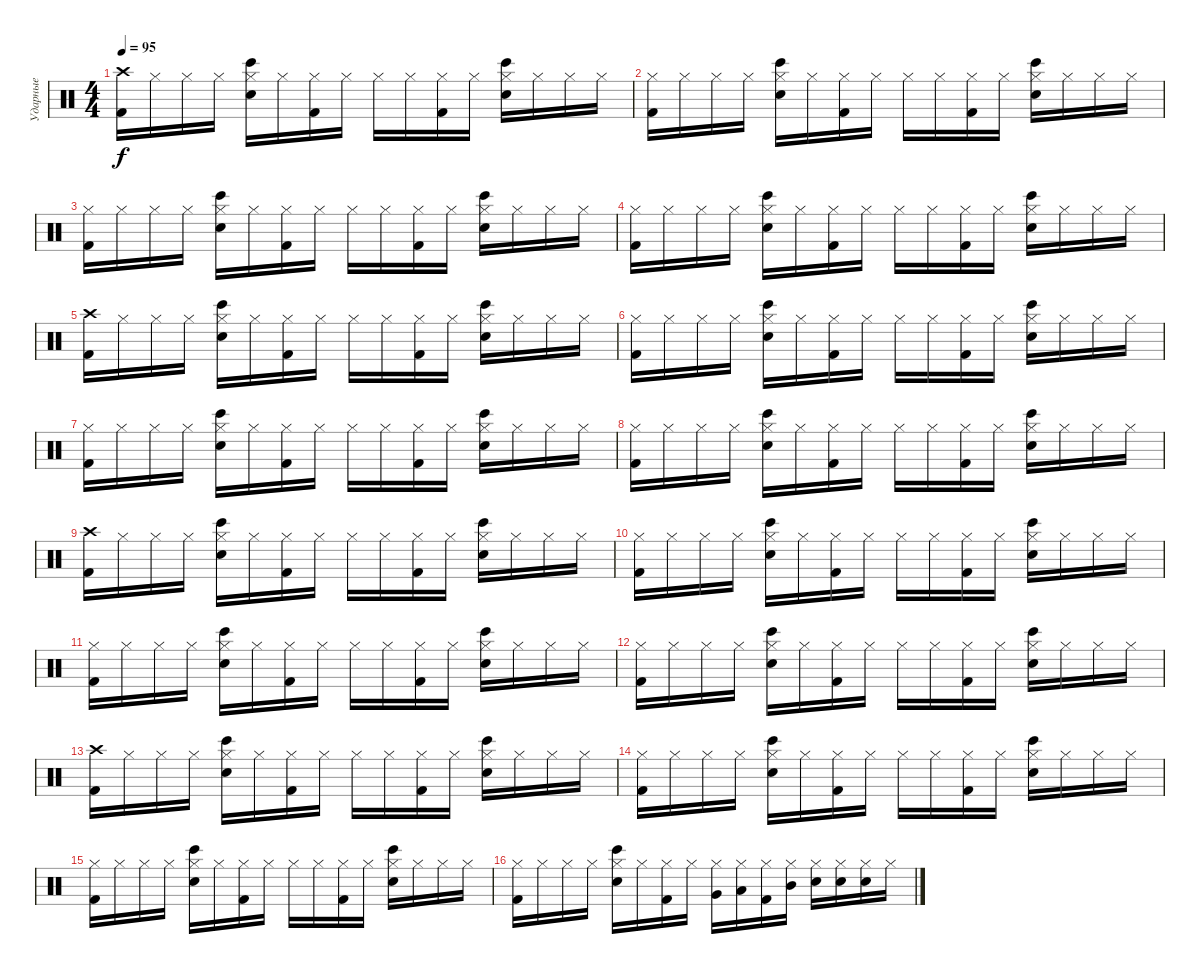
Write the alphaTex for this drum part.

\track ("Ударные" "Ударные") {instrument percussion}
\staff {score}
\articulation defaults
\ts (4 4)
\tempo 95
\clef neutral
\ks c
("Crash high (hit)" "Kick (hit) 2").16{dy f} "Hi-Hat (closed)".16 "Hi-Hat (closed)".16 "Hi-Hat (closed)".16 ("Hi-Hat (closed)" "Electric Snare (hit)" "Bongo High (hit)").16 "Hi-Hat (closed)".16 ("Hi-Hat (closed)" "Kick (hit) 2").16 "Hi-Hat (closed)".16 "Hi-Hat (closed)".16 "Hi-Hat (closed)".16 ("Hi-Hat (closed)" "Kick (hit) 2").16 "Hi-Hat (closed)".16 ("Hi-Hat (closed)" "Electric Snare (hit)" "Bongo High (hit)").16 "Hi-Hat (closed)".16 "Hi-Hat (closed)".16 "Hi-Hat (closed)".16 |
("Hi-Hat (closed)" "Kick (hit) 2").16 "Hi-Hat (closed)".16 "Hi-Hat (closed)".16 "Hi-Hat (closed)".16 ("Hi-Hat (closed)" "Electric Snare (hit)" "Bongo High (hit)").16 "Hi-Hat (closed)".16 ("Hi-Hat (closed)" "Kick (hit) 2").16 "Hi-Hat (closed)".16 "Hi-Hat (closed)".16 "Hi-Hat (closed)".16 ("Hi-Hat (closed)" "Kick (hit) 2").16 "Hi-Hat (closed)".16 ("Hi-Hat (closed)" "Electric Snare (hit)" "Bongo High (hit)").16 "Hi-Hat (closed)".16 "Hi-Hat (closed)".16 "Hi-Hat (closed)".16 |
("Hi-Hat (closed)" "Kick (hit) 2").16 "Hi-Hat (closed)".16 "Hi-Hat (closed)".16 "Hi-Hat (closed)".16 ("Hi-Hat (closed)" "Electric Snare (hit)" "Bongo High (hit)").16 "Hi-Hat (closed)".16 ("Hi-Hat (closed)" "Kick (hit) 2").16 "Hi-Hat (closed)".16 "Hi-Hat (closed)".16 "Hi-Hat (closed)".16 ("Hi-Hat (closed)" "Kick (hit) 2").16 "Hi-Hat (closed)".16 ("Hi-Hat (closed)" "Electric Snare (hit)" "Bongo High (hit)").16 "Hi-Hat (closed)".16 "Hi-Hat (closed)".16 "Hi-Hat (closed)".16 |
("Hi-Hat (closed)" "Kick (hit) 2").16 "Hi-Hat (closed)".16 "Hi-Hat (closed)".16 "Hi-Hat (closed)".16 ("Hi-Hat (closed)" "Electric Snare (hit)" "Bongo High (hit)").16 "Hi-Hat (closed)".16 ("Hi-Hat (closed)" "Kick (hit) 2").16 "Hi-Hat (closed)".16 "Hi-Hat (closed)".16 "Hi-Hat (closed)".16 ("Hi-Hat (closed)" "Kick (hit) 2").16 "Hi-Hat (closed)".16 ("Hi-Hat (closed)" "Electric Snare (hit)" "Bongo High (hit)").16 "Hi-Hat (closed)".16 "Hi-Hat (closed)".16 "Hi-Hat (closed)".16 |
("Crash high (hit)" "Kick (hit) 2").16 "Hi-Hat (closed)".16 "Hi-Hat (closed)".16 "Hi-Hat (closed)".16 ("Hi-Hat (closed)" "Electric Snare (hit)" "Bongo High (hit)").16 "Hi-Hat (closed)".16 ("Hi-Hat (closed)" "Kick (hit) 2").16 "Hi-Hat (closed)".16 "Hi-Hat (closed)".16 "Hi-Hat (closed)".16 ("Hi-Hat (closed)" "Kick (hit) 2").16 "Hi-Hat (closed)".16 ("Hi-Hat (closed)" "Electric Snare (hit)" "Bongo High (hit)").16 "Hi-Hat (closed)".16 "Hi-Hat (closed)".16 "Hi-Hat (closed)".16 |
("Hi-Hat (closed)" "Kick (hit) 2").16 "Hi-Hat (closed)".16 "Hi-Hat (closed)".16 "Hi-Hat (closed)".16 ("Hi-Hat (closed)" "Electric Snare (hit)" "Bongo High (hit)").16 "Hi-Hat (closed)".16 ("Hi-Hat (closed)" "Kick (hit) 2").16 "Hi-Hat (closed)".16 "Hi-Hat (closed)".16 "Hi-Hat (closed)".16 ("Hi-Hat (closed)" "Kick (hit) 2").16 "Hi-Hat (closed)".16 ("Hi-Hat (closed)" "Electric Snare (hit)" "Bongo High (hit)").16 "Hi-Hat (closed)".16 "Hi-Hat (closed)".16 "Hi-Hat (closed)".16 |
("Hi-Hat (closed)" "Kick (hit) 2").16 "Hi-Hat (closed)".16 "Hi-Hat (closed)".16 "Hi-Hat (closed)".16 ("Hi-Hat (closed)" "Electric Snare (hit)" "Bongo High (hit)").16 "Hi-Hat (closed)".16 ("Hi-Hat (closed)" "Kick (hit) 2").16 "Hi-Hat (closed)".16 "Hi-Hat (closed)".16 "Hi-Hat (closed)".16 ("Hi-Hat (closed)" "Kick (hit) 2").16 "Hi-Hat (closed)".16 ("Hi-Hat (closed)" "Electric Snare (hit)" "Bongo High (hit)").16 "Hi-Hat (closed)".16 "Hi-Hat (closed)".16 "Hi-Hat (closed)".16 |
("Hi-Hat (closed)" "Kick (hit) 2").16 "Hi-Hat (closed)".16 "Hi-Hat (closed)".16 "Hi-Hat (closed)".16 ("Hi-Hat (closed)" "Electric Snare (hit)" "Bongo High (hit)").16 "Hi-Hat (closed)".16 ("Hi-Hat (closed)" "Kick (hit) 2").16 "Hi-Hat (closed)".16 "Hi-Hat (closed)".16 "Hi-Hat (closed)".16 ("Hi-Hat (closed)" "Kick (hit) 2").16 "Hi-Hat (closed)".16 ("Hi-Hat (closed)" "Electric Snare (hit)" "Bongo High (hit)").16 "Hi-Hat (closed)".16 "Hi-Hat (closed)".16 "Hi-Hat (closed)".16 |
("Crash high (hit)" "Kick (hit) 2").16 "Hi-Hat (closed)".16 "Hi-Hat (closed)".16 "Hi-Hat (closed)".16 ("Hi-Hat (closed)" "Electric Snare (hit)" "Bongo High (hit)").16 "Hi-Hat (closed)".16 ("Hi-Hat (closed)" "Kick (hit) 2").16 "Hi-Hat (closed)".16 "Hi-Hat (closed)".16 "Hi-Hat (closed)".16 ("Hi-Hat (closed)" "Kick (hit) 2").16 "Hi-Hat (closed)".16 ("Hi-Hat (closed)" "Electric Snare (hit)" "Bongo High (hit)").16 "Hi-Hat (closed)".16 "Hi-Hat (closed)".16 "Hi-Hat (closed)".16 |
("Hi-Hat (closed)" "Kick (hit) 2").16 "Hi-Hat (closed)".16 "Hi-Hat (closed)".16 "Hi-Hat (closed)".16 ("Hi-Hat (closed)" "Electric Snare (hit)" "Bongo High (hit)").16 "Hi-Hat (closed)".16 ("Hi-Hat (closed)" "Kick (hit) 2").16 "Hi-Hat (closed)".16 "Hi-Hat (closed)".16 "Hi-Hat (closed)".16 ("Hi-Hat (closed)" "Kick (hit) 2").16 "Hi-Hat (closed)".16 ("Hi-Hat (closed)" "Electric Snare (hit)" "Bongo High (hit)").16 "Hi-Hat (closed)".16 "Hi-Hat (closed)".16 "Hi-Hat (closed)".16 |
("Hi-Hat (closed)" "Kick (hit) 2").16 "Hi-Hat (closed)".16 "Hi-Hat (closed)".16 "Hi-Hat (closed)".16 ("Hi-Hat (closed)" "Electric Snare (hit)" "Bongo High (hit)").16 "Hi-Hat (closed)".16 ("Hi-Hat (closed)" "Kick (hit) 2").16 "Hi-Hat (closed)".16 "Hi-Hat (closed)".16 "Hi-Hat (closed)".16 ("Hi-Hat (closed)" "Kick (hit) 2").16 "Hi-Hat (closed)".16 ("Hi-Hat (closed)" "Electric Snare (hit)" "Bongo High (hit)").16 "Hi-Hat (closed)".16 "Hi-Hat (closed)".16 "Hi-Hat (closed)".16 |
("Hi-Hat (closed)" "Kick (hit) 2").16 "Hi-Hat (closed)".16 "Hi-Hat (closed)".16 "Hi-Hat (closed)".16 ("Hi-Hat (closed)" "Electric Snare (hit)" "Bongo High (hit)").16 "Hi-Hat (closed)".16 ("Hi-Hat (closed)" "Kick (hit) 2").16 "Hi-Hat (closed)".16 "Hi-Hat (closed)".16 "Hi-Hat (closed)".16 ("Hi-Hat (closed)" "Kick (hit) 2").16 "Hi-Hat (closed)".16 ("Hi-Hat (closed)" "Electric Snare (hit)" "Bongo High (hit)").16 "Hi-Hat (closed)".16 "Hi-Hat (closed)".16 "Hi-Hat (closed)".16 |
("Crash high (hit)" "Kick (hit) 2").16 "Hi-Hat (closed)".16 "Hi-Hat (closed)".16 "Hi-Hat (closed)".16 ("Hi-Hat (closed)" "Electric Snare (hit)" "Bongo High (hit)").16 "Hi-Hat (closed)".16 ("Hi-Hat (closed)" "Kick (hit) 2").16 "Hi-Hat (closed)".16 "Hi-Hat (closed)".16 "Hi-Hat (closed)".16 ("Hi-Hat (closed)" "Kick (hit) 2").16 "Hi-Hat (closed)".16 ("Hi-Hat (closed)" "Electric Snare (hit)" "Bongo High (hit)").16 "Hi-Hat (closed)".16 "Hi-Hat (closed)".16 "Hi-Hat (closed)".16 |
("Hi-Hat (closed)" "Kick (hit) 2").16 "Hi-Hat (closed)".16 "Hi-Hat (closed)".16 "Hi-Hat (closed)".16 ("Hi-Hat (closed)" "Electric Snare (hit)" "Bongo High (hit)").16 "Hi-Hat (closed)".16 ("Hi-Hat (closed)" "Kick (hit) 2").16 "Hi-Hat (closed)".16 "Hi-Hat (closed)".16 "Hi-Hat (closed)".16 ("Hi-Hat (closed)" "Kick (hit) 2").16 "Hi-Hat (closed)".16 ("Hi-Hat (closed)" "Electric Snare (hit)" "Bongo High (hit)").16 "Hi-Hat (closed)".16 "Hi-Hat (closed)".16 "Hi-Hat (closed)".16 |
("Hi-Hat (closed)" "Kick (hit) 2").16 "Hi-Hat (closed)".16 "Hi-Hat (closed)".16 "Hi-Hat (closed)".16 ("Hi-Hat (closed)" "Electric Snare (hit)" "Bongo High (hit)").16 "Hi-Hat (closed)".16 ("Hi-Hat (closed)" "Kick (hit) 2").16 "Hi-Hat (closed)".16 "Hi-Hat (closed)".16 "Hi-Hat (closed)".16 ("Hi-Hat (closed)" "Kick (hit) 2").16 "Hi-Hat (closed)".16 ("Hi-Hat (closed)" "Electric Snare (hit)" "Bongo High (hit)").16 "Hi-Hat (closed)".16 "Hi-Hat (closed)".16 "Hi-Hat (closed)".16 |
("Hi-Hat (closed)" "Kick (hit) 2").16 "Hi-Hat (closed)".16 "Hi-Hat (closed)".16 "Hi-Hat (closed)".16 ("Hi-Hat (closed)" "Electric Snare (hit)" "Bongo High (hit)").16 "Hi-Hat (closed)".16 ("Hi-Hat (closed)" "Kick (hit) 2").16 "Hi-Hat (closed)".16 ("Hi-Hat (closed)" "Very Low Tom (hit)").16 ("Hi-Hat (closed)" "Low Tom (hit)").16 ("Hi-Hat (closed)" "Kick (hit) 2").16 ("Hi-Hat (closed)" "Mid Tom (hit)").16 ("Hi-Hat (closed)" "Electric Snare (hit)").16 ("Hi-Hat (closed)" "Electric Snare (hit)").16 ("Hi-Hat (closed)" "Electric Snare (hit)").16 "Hi-Hat (closed)".16
